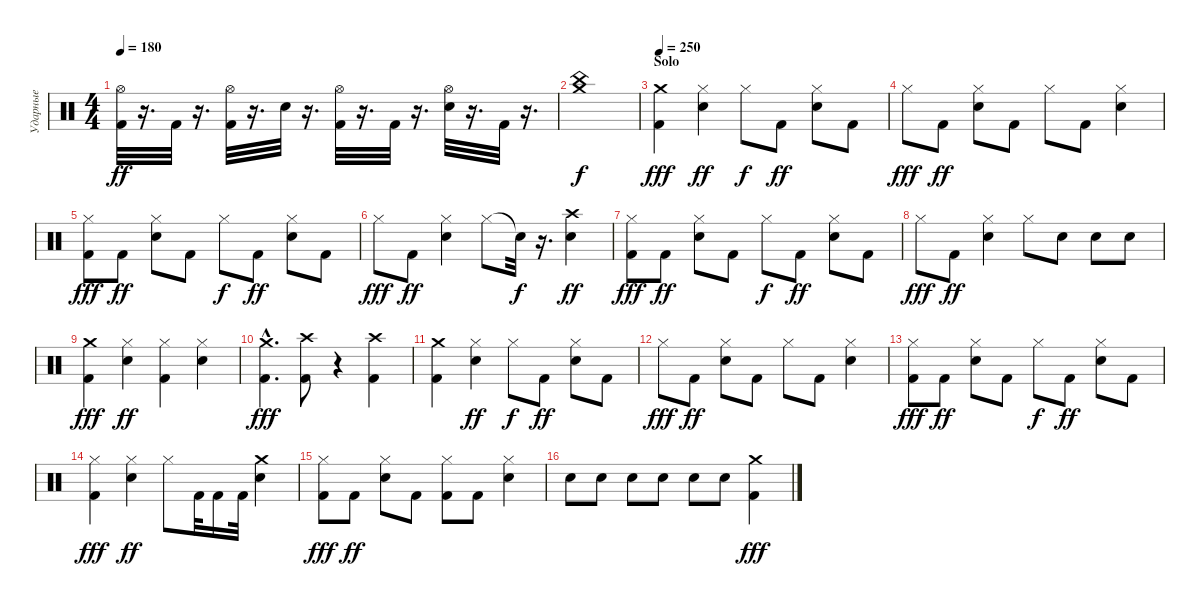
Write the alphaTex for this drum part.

\track ("Ударные" "Ударные") {instrument percussion}
\staff {score}
\articulation defaults
\ts (4 4)
\tempo 180
\clef neutral
\ks c
("Hi-Hat (open)" "Kick (hit) 2").32{dy ff} r.16{d} "Kick (hit) 2".32 r.16{d} ("Hi-Hat (open)" "Kick (hit) 2").32 r.16{d} "Electric Snare (hit)".32 r.16{d} ("Hi-Hat (open)" "Kick (hit) 2").32 r.16{d} "Kick (hit) 2".32 r.16{d} ("Hi-Hat (open)" "Electric Snare (hit)").32 r.16{d} "Kick (hit) 2".32 r.16{d} |
("China (hit)" "Crash medium (hit)").1{dy f} |
\section ("" "Solo")
\tempo 250
("Kick (hit) 2" "Crash medium (hit)").4{dy fff} ("Hi-Hat (closed)" "Electric Snare (hit)").4{dy ff} "Hi-Hat (closed)".8{dy f} "Kick (hit) 2".8{dy ff} ("Hi-Hat (closed)" "Electric Snare (hit)").8 "Kick (hit) 2".8 |
"Hi-Hat (closed)".8{dy fff} "Kick (hit) 2".8{dy ff} ("Hi-Hat (closed)" "Electric Snare (hit)").8 "Kick (hit) 2".8 "Hi-Hat (closed)".8 "Kick (hit) 2".8 ("Hi-Hat (closed)" "Electric Snare (hit)").4 |
("Kick (hit) 2" "Hi-Hat (closed)").8{dy fff} "Kick (hit) 2".8{dy ff} ("Hi-Hat (closed)" "Electric Snare (hit)").8 "Kick (hit) 2".8 "Hi-Hat (closed)".8{dy f} "Kick (hit) 2".8{dy ff} ("Hi-Hat (closed)" "Electric Snare (hit)").8 "Kick (hit) 2".8 |
"Hi-Hat (closed)".8{dy fff} "Kick (hit) 2".8{dy ff} ("Hi-Hat (closed)" "Electric Snare (hit)").4 "Hi-Hat (closed)".8 "Snare (hit)"{t}.32{dy f} r.16{d} ("Crash high (hit)" "Electric Snare (hit)").4{dy ff} |
("Kick (hit) 2" "Hi-Hat (closed)").8{dy fff} "Kick (hit) 2".8{dy ff} ("Hi-Hat (closed)" "Electric Snare (hit)").8 "Kick (hit) 2".8 "Hi-Hat (closed)".8{dy f} "Kick (hit) 2".8{dy ff} ("Hi-Hat (closed)" "Electric Snare (hit)").8 "Kick (hit) 2".8 |
"Hi-Hat (closed)".8{dy fff} "Kick (hit) 2".8{dy ff} ("Hi-Hat (closed)" "Electric Snare (hit)").4 "Hi-Hat (closed)".8 "Electric Snare (hit)".8 "Electric Snare (hit)".8 "Electric Snare (hit)".8 |
("Kick (hit) 2" "Crash medium (hit)").4{dy fff} ("Hi-Hat (closed)" "Electric Snare (hit)").4{dy ff} ("Kick (hit) 2" "Hi-Hat (closed)").4 ("Hi-Hat (closed)" "Electric Snare (hit)").4 |
("Kick (hit) 2"{hac} "Crash medium (hit)"{hac}).4{d dy fff} ("Kick (hit) 2" "Crash high (hit)").8 r.4 ("Kick (hit) 2" "Crash high (hit)").4 |
("Kick (hit) 2" "Crash medium (hit)").4 ("Hi-Hat (closed)" "Electric Snare (hit)").4{dy ff} "Hi-Hat (closed)".8{dy f} "Kick (hit) 2".8{dy ff} ("Hi-Hat (closed)" "Electric Snare (hit)").8 "Kick (hit) 2".8 |
"Hi-Hat (closed)".8{dy fff} "Kick (hit) 2".8{dy ff} ("Hi-Hat (closed)" "Electric Snare (hit)").8 "Kick (hit) 2".8 "Hi-Hat (closed)".8 "Kick (hit) 2".8 ("Hi-Hat (closed)" "Electric Snare (hit)").4 |
("Kick (hit) 2" "Hi-Hat (closed)").8{dy fff} "Kick (hit) 2".8{dy ff} ("Hi-Hat (closed)" "Electric Snare (hit)").8 "Kick (hit) 2".8 "Hi-Hat (closed)".8{dy f} "Kick (hit) 2".8{dy ff} ("Hi-Hat (closed)" "Electric Snare (hit)").8 "Kick (hit) 2".8 |
("Kick (hit) 2" "Hi-Hat (closed)").4{dy fff} ("Hi-Hat (closed)" "Electric Snare (hit)").4{dy ff} "Hi-Hat (closed)".8 "Kick (hit) 2".32 "Kick (hit) 2".16 "Kick (hit) 2".32 ("Crash medium (hit)" "Electric Snare (hit)").4 |
("Kick (hit) 2" "Hi-Hat (closed)").8{dy fff} "Kick (hit) 2".8{dy ff} ("Hi-Hat (closed)" "Electric Snare (hit)").8 "Kick (hit) 2".8 ("Kick (hit) 2" "Hi-Hat (closed)").8 "Kick (hit) 2".8 ("Hi-Hat (closed)" "Electric Snare (hit)").4 |
"Electric Snare (hit)".8 "Electric Snare (hit)".8 "Electric Snare (hit)".8 "Electric Snare (hit)".8 "Electric Snare (hit)".8 "Electric Snare (hit)".8 ("Kick (hit) 2" "Crash medium (hit)").4{dy fff}
